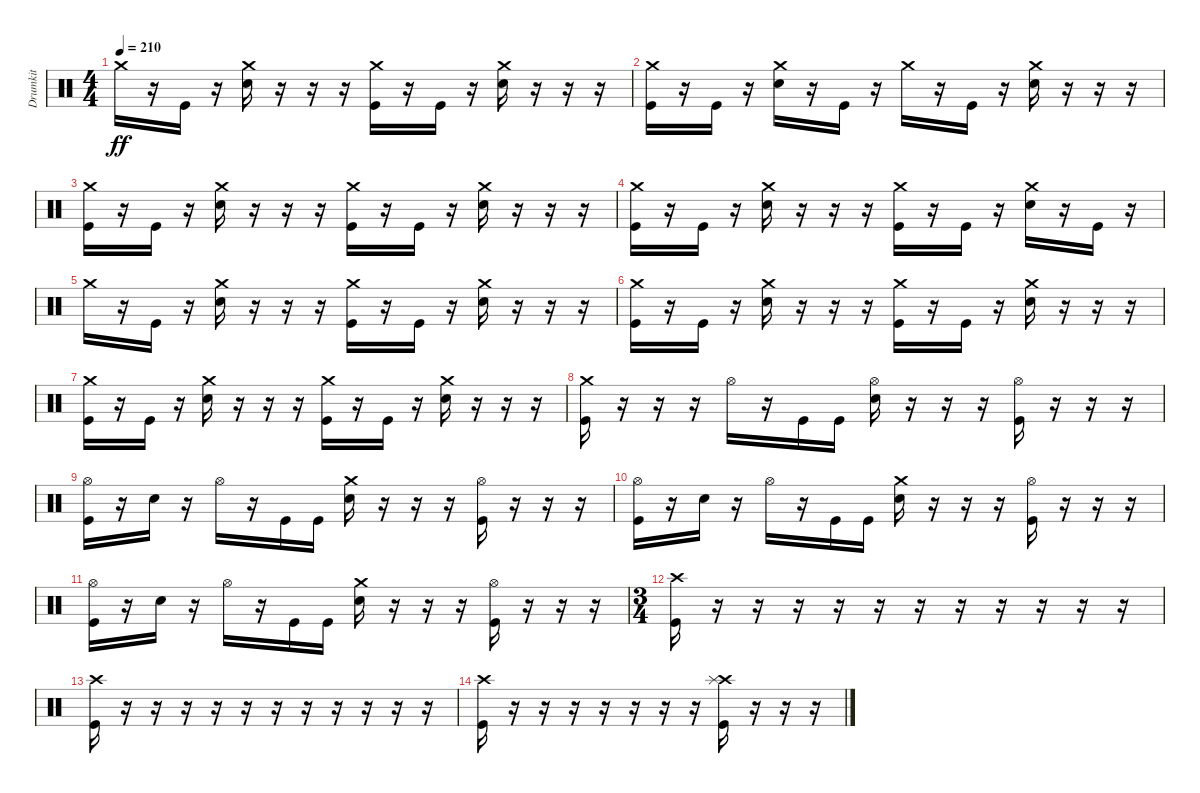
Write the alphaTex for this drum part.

\track ("Drumkit" "Drumkit") {instrument percussion}
\staff {score}
\articulation defaults
\ts (4 4)
\tempo 210
\clef neutral
\ks c "Crash medium (hit)".16{dy ff}
r.16 "Kick (hit)".16 r.16 ("Snare (hit) 2" "Crash medium (hit)").16 r.16 r.16 r.16 ("Kick (hit)" "Crash medium (hit)").16 r.16 "Kick (hit)".16 r.16 ("Snare (hit) 2" "Crash medium (hit)").16 r.16 r.16 r.16 |
("Kick (hit)" "Crash medium (hit)").16 r.16 "Kick (hit)".16 r.16 ("Snare (hit) 2" "Crash medium (hit)").16 r.16 "Kick (hit)".16 r.16 "Crash medium (hit)".16 r.16 "Kick (hit)".16 r.16 ("Snare (hit) 2" "Crash medium (hit)").16 r.16 r.16 r.16 |
("Kick (hit)" "Crash medium (hit)").16 r.16 "Kick (hit)".16 r.16 ("Snare (hit) 2" "Crash medium (hit)").16 r.16 r.16 r.16 ("Kick (hit)" "Crash medium (hit)").16 r.16 "Kick (hit)".16 r.16 ("Snare (hit) 2" "Crash medium (hit)").16 r.16 r.16 r.16 |
("Kick (hit)" "Crash medium (hit)").16 r.16 "Kick (hit)".16 r.16 ("Snare (hit) 2" "Crash medium (hit)").16 r.16 r.16 r.16 ("Kick (hit)" "Crash medium (hit)").16 r.16 "Kick (hit)".16 r.16 ("Snare (hit) 2" "Crash medium (hit)").16 r.16 "Kick (hit)".16 r.16 |
"Crash medium (hit)".16 r.16 "Kick (hit)".16 r.16 ("Snare (hit) 2" "Crash medium (hit)").16 r.16 r.16 r.16 ("Kick (hit)" "Crash medium (hit)").16 r.16 "Kick (hit)".16 r.16 ("Snare (hit) 2" "Crash medium (hit)").16 r.16 r.16 r.16 |
("Kick (hit)" "Crash medium (hit)").16 r.16 "Kick (hit)".16 r.16 ("Snare (hit) 2" "Crash medium (hit)").16 r.16 r.16 r.16 ("Kick (hit)" "Crash medium (hit)").16 r.16 "Kick (hit)".16 r.16 ("Snare (hit) 2" "Crash medium (hit)").16 r.16 r.16 r.16 |
("Kick (hit)" "Crash medium (hit)").16 r.16 "Kick (hit)".16 r.16 ("Snare (hit) 2" "Crash medium (hit)").16 r.16 r.16 r.16 ("Kick (hit)" "Crash medium (hit)").16 r.16 "Kick (hit)".16 r.16 ("Snare (hit) 2" "Crash medium (hit)").16 r.16 r.16 r.16 |
("Kick (hit)" "Crash medium (hit)").16 r.16 r.16 r.16 "Hi-Hat (open)".16 r.16 "Kick (hit)".16 "Kick (hit)".16 ("Hi-Hat (open)" "Snare (hit) 2").16 r.16 r.16 r.16 ("Hi-Hat (open)" "Kick (hit)").16 r.16 r.16 r.16 |
("Kick (hit)" "Hi-Hat (open)").16 r.16 "Snare (hit) 2".16 r.16 "Hi-Hat (open)".16 r.16 "Kick (hit)".16 "Kick (hit)".16 ("Snare (hit) 2" "Crash medium (hit)").16 r.16 r.16 r.16 ("Hi-Hat (open)" "Kick (hit)").16 r.16 r.16 r.16 |
("Kick (hit)" "Hi-Hat (open)").16 r.16 "Snare (hit) 2".16 r.16 "Hi-Hat (open)".16 r.16 "Kick (hit)".16 "Kick (hit)".16 ("Snare (hit) 2" "Crash medium (hit)").16 r.16 r.16 r.16 ("Hi-Hat (open)" "Kick (hit)").16 r.16 r.16 r.16 |
("Kick (hit)" "Hi-Hat (open)").16 r.16 "Snare (hit) 2".16 r.16 "Hi-Hat (open)".16 r.16 "Kick (hit)".16 "Kick (hit)".16 ("Snare (hit) 2" "Crash medium (hit)").16 r.16 r.16 r.16 ("Hi-Hat (open)" "Kick (hit)").16 r.16 r.16 r.16 |
\ts (3 4)
("Kick (hit)" "Crash high (hit)").16 r.16 r.16 r.16 r.16 r.16 r.16 r.16 r.16 r.16 r.16 r.16 |
("Kick (hit)" "Crash high (hit)").16 r.16 r.16 r.16 r.16 r.16 r.16 r.16 r.16 r.16 r.16 r.16 |
("Kick (hit)" "Crash high (hit)").16 r.16 r.16 r.16 r.16 r.16 r.16 r.16 ("Kick (hit)" "Crash high (hit)" "Splash (hit)").16 r.16 r.16 r.16
